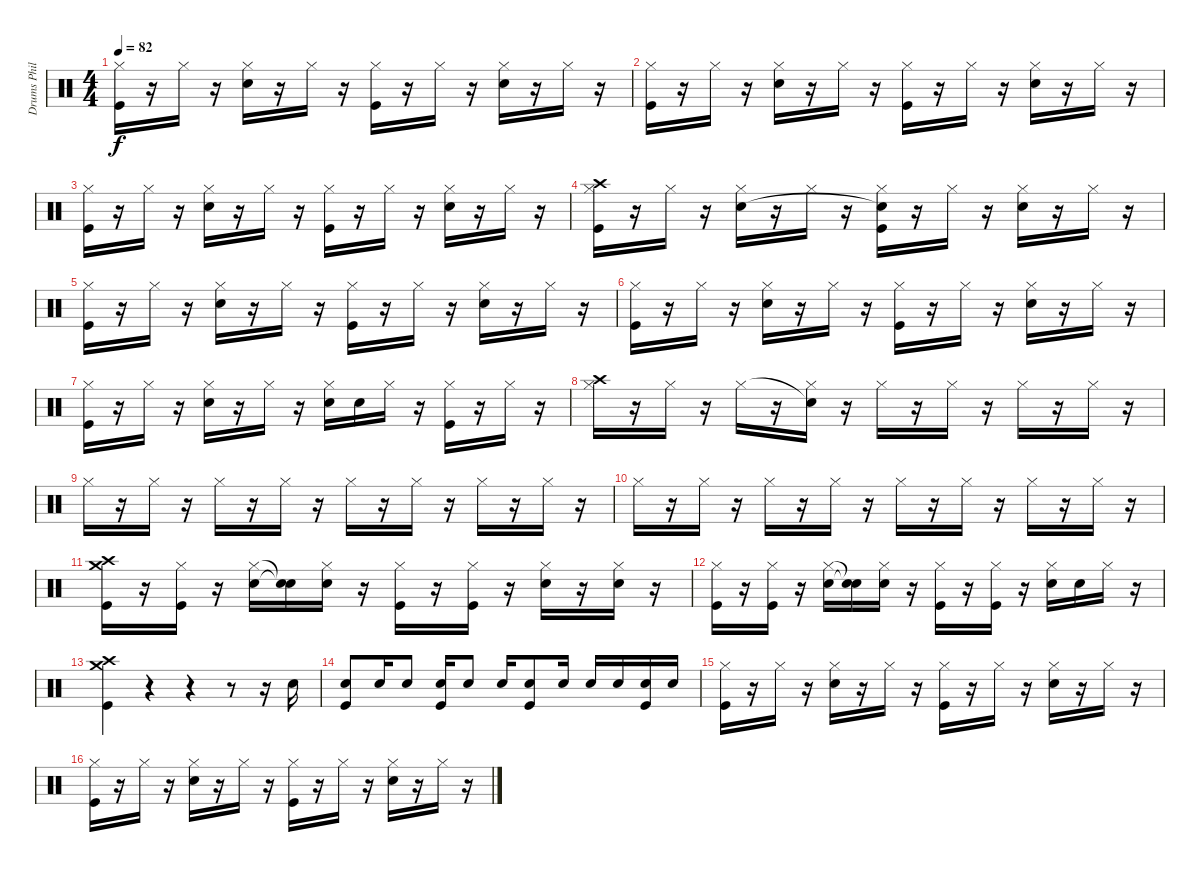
\track ("Drums Phill" "Drums Phil") {instrument percussion}
\staff {score}
\articulation defaults
\ts (4 4)
\tempo 82
\clef neutral
\ks c
("Hi-Hat (closed)" "Kick (hit)").16{dy f} r.16 "Hi-Hat (closed)".16 r.16 ("Hi-Hat (closed)" "Snare (hit) 2").16 r.16 "Hi-Hat (closed)".16 r.16 ("Hi-Hat (closed)" "Kick (hit)").16 r.16 "Hi-Hat (closed)".16 r.16 ("Hi-Hat (closed)" "Snare (hit) 2").16 r.16 "Hi-Hat (closed)".16 r.16 |
("Hi-Hat (closed)" "Kick (hit)").16 r.16 "Hi-Hat (closed)".16 r.16 ("Hi-Hat (closed)" "Snare (hit) 2").16 r.16 "Hi-Hat (closed)".16 r.16 ("Hi-Hat (closed)" "Kick (hit)").16 r.16 "Hi-Hat (closed)".16 r.16 ("Hi-Hat (closed)" "Snare (hit) 2").16 r.16 "Hi-Hat (closed)".16 r.16 |
("Hi-Hat (closed)" "Kick (hit)").16 r.16 "Hi-Hat (closed)".16 r.16 ("Hi-Hat (closed)" "Snare (hit) 2").16 r.16 "Hi-Hat (closed)".16 r.16 ("Hi-Hat (closed)" "Kick (hit)").16 r.16 "Hi-Hat (closed)".16 r.16 ("Hi-Hat (closed)" "Snare (hit) 2").16 r.16 "Hi-Hat (closed)".16 r.16 |
("Hi-Hat (closed)" "Crash high (hit)" "Kick (hit)").16 r.16 "Hi-Hat (closed)".16 r.16 ("Hi-Hat (closed)" "Snare (hit) 2").16 r.16 "Hi-Hat (closed)".16 r.16 ("Hi-Hat (closed)" "Snare (hit)"{t} "Kick (hit)").16 r.16 "Hi-Hat (closed)".16 r.16 ("Hi-Hat (closed)" "Snare (hit) 2").16 r.16 "Hi-Hat (closed)".16 r.16 |
("Hi-Hat (closed)" "Kick (hit)").16 r.16 "Hi-Hat (closed)".16 r.16 ("Hi-Hat (closed)" "Snare (hit) 2").16 r.16 "Hi-Hat (closed)".16 r.16 ("Hi-Hat (closed)" "Kick (hit)").16 r.16 "Hi-Hat (closed)".16 r.16 ("Hi-Hat (closed)" "Snare (hit) 2").16 r.16 "Hi-Hat (closed)".16 r.16 |
("Hi-Hat (closed)" "Kick (hit)").16 r.16 "Hi-Hat (closed)".16 r.16 ("Hi-Hat (closed)" "Snare (hit) 2").16 r.16 "Hi-Hat (closed)".16 r.16 ("Hi-Hat (closed)" "Kick (hit)").16 r.16 "Hi-Hat (closed)".16 r.16 ("Hi-Hat (closed)" "Snare (hit) 2").16 r.16 "Hi-Hat (closed)".16 r.16 |
("Hi-Hat (closed)" "Kick (hit)").16 r.16 "Hi-Hat (closed)".16 r.16 ("Hi-Hat (closed)" "Snare (hit) 2").16 r.16 "Hi-Hat (closed)".16 r.16 ("Hi-Hat (closed)" "Snare (hit) 2").16 "Snare (hit) 2".16 "Hi-Hat (closed)".16 r.16 ("Hi-Hat (closed)" "Kick (hit)").16 r.16 "Hi-Hat (closed)".16 r.16 |
("Crash high (hit)" "Hi-Hat (closed)").16 r.16 "Hi-Hat (closed)".16 r.16 "Hi-Hat (closed)".16 r.16 ("Snare (hit)"{t} "Hi-Hat (closed)").16 r.16 "Hi-Hat (closed)".16 r.16 "Hi-Hat (closed)".16 r.16 "Hi-Hat (closed)".16 r.16 "Hi-Hat (closed)".16 r.16 |
"Hi-Hat (closed)".16 r.16 "Hi-Hat (closed)".16 r.16 "Hi-Hat (closed)".16 r.16 "Hi-Hat (closed)".16 r.16 "Hi-Hat (closed)".16 r.16 "Hi-Hat (closed)".16 r.16 "Hi-Hat (closed)".16 r.16 "Hi-Hat (closed)".16 r.16 |
"Hi-Hat (closed)".16 r.16 "Hi-Hat (closed)".16 r.16 "Hi-Hat (closed)".16 r.16 "Hi-Hat (closed)".16 r.16 "Hi-Hat (closed)".16 r.16 "Hi-Hat (closed)".16 r.16 "Hi-Hat (closed)".16 r.16 "Hi-Hat (closed)".16 r.16 |
("Crash high (hit)" "Crash medium (hit)" "Kick (hit)").16 r.16 ("Hi-Hat (closed)" "Kick (hit)").16 r.16 ("Hi-Hat (closed)" "Snare (hit) 2").16 ("Snare (hit)"{t} "Snare (hit)"{t}).16 ("Hi-Hat (closed)" "Snare (hit) 2").16 r.16 ("Hi-Hat (closed)" "Kick (hit)").16 r.16 ("Hi-Hat (closed)" "Kick (hit)").16 r.16 ("Hi-Hat (closed)" "Snare (hit) 2").16 r.16 ("Hi-Hat (closed)" "Snare (hit) 2").16 r.16 |
("Hi-Hat (closed)" "Kick (hit)").16 r.16 ("Hi-Hat (closed)" "Kick (hit)").16 r.16 ("Hi-Hat (closed)" "Snare (hit) 2").16 ("Snare (hit)"{t} "Snare (hit)"{t}).16 ("Hi-Hat (closed)" "Snare (hit) 2").16 r.16 ("Hi-Hat (closed)" "Kick (hit)").16 r.16 ("Hi-Hat (closed)" "Kick (hit)").16 r.16 ("Hi-Hat (closed)" "Snare (hit) 2").16 "Snare (hit) 2".16 "Hi-Hat (closed)".16 r.16 |
("Crash medium (hit)" "Crash high (hit)" "Kick (hit)").4 r.4 r.4 r.8 r.16 "Snare (hit) 2".16 |
("Snare (hit) 2" "Kick (hit)").8 "Snare (hit) 2".16 "Snare (hit) 2".8 ("Snare (hit) 2" "Kick (hit)").16 "Snare (hit) 2".8 "Snare (hit) 2".16 ("Snare (hit) 2" "Kick (hit)").8 "Snare (hit) 2".16 "Snare (hit) 2".16 "Snare (hit) 2".16 ("Snare (hit) 2" "Kick (hit)").16 "Snare (hit) 2".16 |
("Hi-Hat (closed)" "Kick (hit)").16 r.16 "Hi-Hat (closed)".16 r.16 ("Hi-Hat (closed)" "Snare (hit) 2").16 r.16 "Hi-Hat (closed)".16 r.16 ("Hi-Hat (closed)" "Kick (hit)").16 r.16 "Hi-Hat (closed)".16 r.16 ("Hi-Hat (closed)" "Snare (hit) 2").16 r.16 "Hi-Hat (closed)".16 r.16 |
("Hi-Hat (closed)" "Kick (hit)").16 r.16 "Hi-Hat (closed)".16 r.16 ("Hi-Hat (closed)" "Snare (hit) 2").16 r.16 "Hi-Hat (closed)".16 r.16 ("Hi-Hat (closed)" "Kick (hit)").16 r.16 "Hi-Hat (closed)".16 r.16 ("Hi-Hat (closed)" "Snare (hit) 2").16 r.16 "Hi-Hat (closed)".16 r.16
